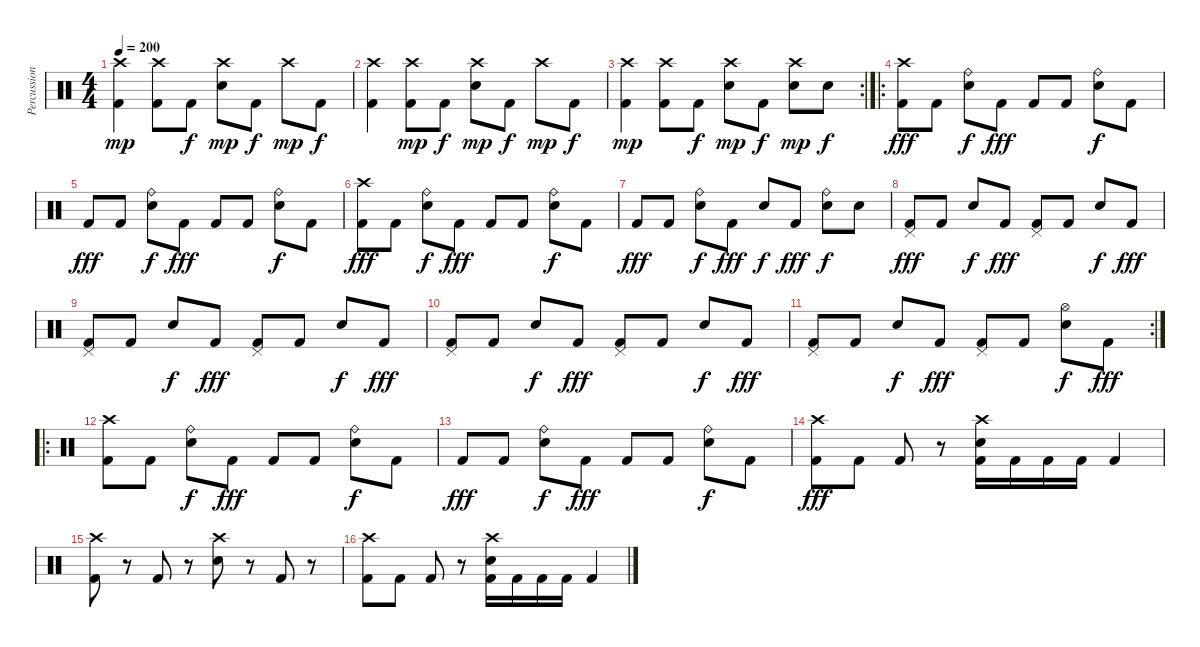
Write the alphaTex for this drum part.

\track ("Percussion" "Percussion") {instrument percussion}
\staff {score}
\articulation defaults
\ts (4 4)
\tempo 200
\clef neutral
\ks c
("Crash high (hit)" "Kick (hit) 2").4{dy mp} ("Crash high (hit)" "Kick (hit) 2").8 "Kick (hit) 2".8{dy f} ("Crash high (hit)" "Electric Snare (hit)").8{dy mp} "Kick (hit) 2".8{dy f} "Crash high (hit)".8{dy mp} "Kick (hit) 2".8{dy f} |
("Crash high (hit)" "Kick (hit) 2").4 ("Crash high (hit)" "Kick (hit) 2").8{dy mp} "Kick (hit) 2".8{dy f} ("Crash high (hit)" "Electric Snare (hit)").8{dy mp} "Kick (hit) 2".8{dy f} "Crash high (hit)".8{dy mp} "Kick (hit) 2".8{dy f} |
\rc 2
("Crash high (hit)" "Kick (hit) 2").4{dy mp} ("Crash high (hit)" "Kick (hit) 2").8 "Kick (hit) 2".8{dy f} ("Crash high (hit)" "Electric Snare (hit)").8{dy mp} "Kick (hit) 2".8{dy f} ("Crash high (hit)" "Electric Snare (hit)").8{dy mp} "Electric Snare (hit)".8{dy f} |
\ro
("Crash high (hit)" "Kick (hit) 2").8{dy fff} "Kick (hit) 2".8 ("Ride (bell)" "Electric Snare (hit)").8{dy f} "Kick (hit) 2".8{dy fff} "Kick (hit) 2".8 "Kick (hit) 2".8 ("Ride (bell)" "Electric Snare (hit)").8{dy f} "Kick (hit) 2".8 |
"Kick (hit) 2".8{dy fff} "Kick (hit) 2".8 ("Ride (bell)" "Electric Snare (hit)").8{dy f} "Kick (hit) 2".8{dy fff} "Kick (hit) 2".8 "Kick (hit) 2".8 ("Ride (bell)" "Electric Snare (hit)").8{dy f} "Kick (hit) 2".8 |
("Crash high (hit)" "Kick (hit) 2").8{dy fff} "Kick (hit) 2".8 ("Ride (bell)" "Electric Snare (hit)").8{dy f} "Kick (hit) 2".8{dy fff} "Kick (hit) 2".8 "Kick (hit) 2".8 ("Ride (bell)" "Electric Snare (hit)").8{dy f} "Kick (hit) 2".8 |
"Kick (hit) 2".8{dy fff} "Kick (hit) 2".8 ("Ride (bell)" "Electric Snare (hit)").8{dy f} "Kick (hit) 2".8{dy fff} "Electric Snare (hit)".8{dy f} "Kick (hit) 2".8{dy fff} ("Ride (bell)" "Electric Snare (hit)").8{dy f} "Electric Snare (hit)".8 |
("Pedal Hi-Hat (hit)" "Kick (hit) 2").8{dy fff} "Kick (hit) 2".8 "Electric Snare (hit)".8{dy f} "Kick (hit) 2".8{dy fff} ("Pedal Hi-Hat (hit)" "Kick (hit) 2").8 "Kick (hit) 2".8 "Electric Snare (hit)".8{dy f} "Kick (hit) 2".8{dy fff} |
("Pedal Hi-Hat (hit)" "Kick (hit) 2").8 "Kick (hit) 2".8 "Electric Snare (hit)".8{dy f} "Kick (hit) 2".8{dy fff} ("Pedal Hi-Hat (hit)" "Kick (hit) 2").8 "Kick (hit) 2".8 "Electric Snare (hit)".8{dy f} "Kick (hit) 2".8{dy fff} |
("Pedal Hi-Hat (hit)" "Kick (hit) 2").8 "Kick (hit) 2".8 "Electric Snare (hit)".8{dy f} "Kick (hit) 2".8{dy fff} ("Pedal Hi-Hat (hit)" "Kick (hit) 2").8 "Kick (hit) 2".8 "Electric Snare (hit)".8{dy f} "Kick (hit) 2".8{dy fff} |
\rc 2
("Pedal Hi-Hat (hit)" "Kick (hit) 2").8 "Kick (hit) 2".8 "Electric Snare (hit)".8{dy f} "Kick (hit) 2".8{dy fff} ("Pedal Hi-Hat (hit)" "Kick (hit) 2").8 "Kick (hit) 2".8 ("Hi-Hat (open)" "Electric Snare (hit)").8{dy f} "Kick (hit) 2".8{dy fff} |
\ro
("Crash high (hit)" "Kick (hit) 2").8 "Kick (hit) 2".8 ("Ride (bell)" "Electric Snare (hit)").8{dy f} "Kick (hit) 2".8{dy fff} "Kick (hit) 2".8 "Kick (hit) 2".8 ("Ride (bell)" "Electric Snare (hit)").8{dy f} "Kick (hit) 2".8 |
"Kick (hit) 2".8{dy fff} "Kick (hit) 2".8 ("Ride (bell)" "Electric Snare (hit)").8{dy f} "Kick (hit) 2".8{dy fff} "Kick (hit) 2".8 "Kick (hit) 2".8 ("Ride (bell)" "Electric Snare (hit)").8{dy f} "Kick (hit) 2".8 |
("Crash high (hit)" "Kick (hit) 2").8{dy fff} "Kick (hit) 2".8 "Kick (hit) 2".8 r.8 ("Crash high (hit)" "Electric Snare (hit)" "Kick (hit) 2").16 "Kick (hit) 2".16 "Kick (hit) 2".16 "Kick (hit) 2".16 "Kick (hit) 2".4 |
("Crash high (hit)" "Kick (hit) 2").8 r.8 "Kick (hit) 2".8 r.8 ("Crash high (hit)" "Electric Snare (hit)").8 r.8 "Kick (hit) 2".8 r.8 |
("Crash high (hit)" "Kick (hit) 2").8 "Kick (hit) 2".8 "Kick (hit) 2".8 r.8 ("Crash high (hit)" "Electric Snare (hit)" "Kick (hit) 2").16 "Kick (hit) 2".16 "Kick (hit) 2".16 "Kick (hit) 2".16 "Kick (hit) 2".4
